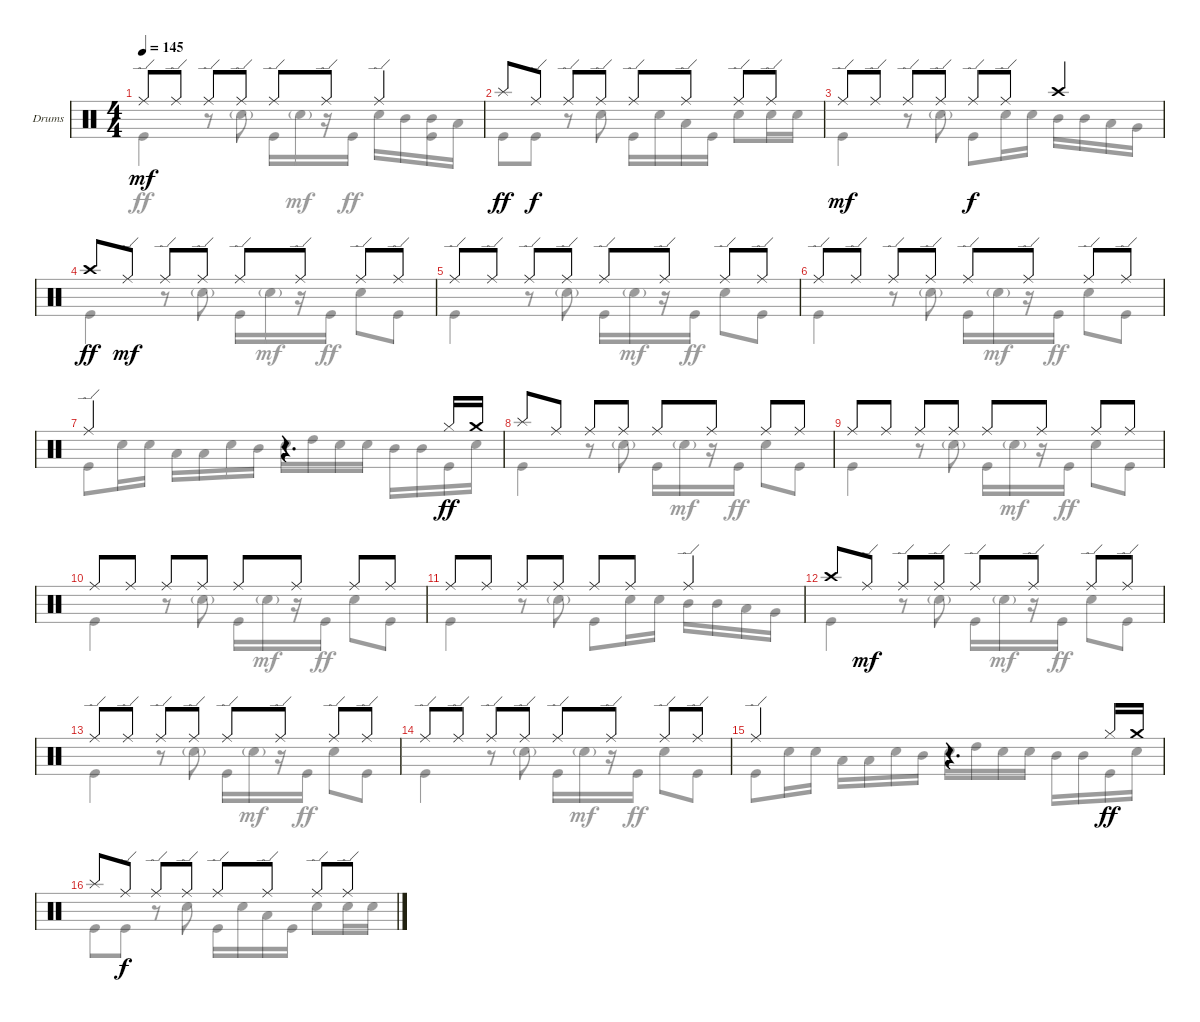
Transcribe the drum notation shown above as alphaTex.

\defaultSystemsLayout 4
\bracketExtendMode groupsimilarinstruments
\firstSystemTrackNameOrientation horizontal
\otherSystemsTrackNameOrientation horizontal
\track ("Drumkit" "Drums") {instrument percussion}
\staff {score}
\articulation defaults
\voice
\ts (4 4)
\tempo 145
\clef neutral
\ks c "Ride (edge)".8{dy mf} "Ride (edge)".8 "Ride (edge)".8 "Ride (edge)".8 "Ride (edge)".8 "Ride (edge)".8 "Ride (edge)".4
|
"Splash (hit)".8{dy ff} "Ride (edge)".8{dy f} "Ride (edge)".8 "Ride (edge)".8 "Ride (edge)".8 "Ride (edge)".8 "Ride (edge)".8 "Ride (edge)".8 |
"Ride (edge)".8{dy mf} "Ride (edge)".8 "Ride (edge)".8 "Ride (edge)".8 "Ride (edge)".8{dy f} "Ride (edge)".8 "Crash high (hit)".4 |
"Crash high (hit)".8{dy ff} "Ride (edge)".8{dy mf} "Ride (edge)".8 "Ride (edge)".8 "Ride (edge)".8 "Ride (edge)".8 "Ride (edge)".8 "Ride (edge)".8 |
"Ride (edge)".8 "Ride (edge)".8 "Ride (edge)".8 "Ride (edge)".8 "Ride (edge)".8 "Ride (edge)".8 "Ride (edge)".8 "Ride (edge)".8 |
"Ride (edge)".8 "Ride (edge)".8 "Ride (edge)".8 "Ride (edge)".8 "Ride (edge)".8 "Ride (edge)".8 "Ride (edge)".8 "Ride (edge)".8 |
"Ride (edge)".2 r.4{d} "Hi-Hat (closed)".16{dy ff} "Crash medium (hit)".16 |
"Splash (hit)".8 "Ride (middle)".8 "Ride (middle)".8 "Ride (middle)".8 "Ride (middle)".8 "Ride (middle)".8 "Ride (middle)".8 "Ride (middle)".8 |
"Ride (middle)".8 "Ride (middle)".8 "Ride (middle)".8 "Ride (middle)".8 "Ride (middle)".8 "Ride (middle)".8 "Ride (middle)".8 "Ride (middle)".8 |
"Ride (middle)".8 "Ride (middle)".8 "Ride (middle)".8 "Ride (middle)".8 "Ride (middle)".8 "Ride (middle)".8 "Ride (middle)".8 "Ride (middle)".8 |
"Ride (middle)".8 "Ride (middle)".8 "Ride (middle)".8 "Ride (middle)".8 "Ride (middle)".8 "Ride (middle)".8 "Ride (edge)".4 |
"Crash high (hit)".8 "Ride (edge)".8{dy mf} "Ride (edge)".8 "Ride (edge)".8 "Ride (edge)".8 "Ride (edge)".8 "Ride (edge)".8 "Ride (edge)".8 |
"Ride (edge)".8 "Ride (edge)".8 "Ride (edge)".8 "Ride (edge)".8 "Ride (edge)".8 "Ride (edge)".8 "Ride (edge)".8 "Ride (edge)".8 |
"Ride (edge)".8 "Ride (edge)".8 "Ride (edge)".8 "Ride (edge)".8 "Ride (edge)".8 "Ride (edge)".8 "Ride (edge)".8 "Ride (edge)".8 |
"Ride (edge)".2 r.4{d} "Hi-Hat (closed)".16{dy ff} "Crash medium (hit)".16 |
"Splash (hit)".8 "Ride (edge)".8{dy f} "Ride (edge)".8 "Ride (edge)".8 "Ride (edge)".8 "Ride (edge)".8 "Ride (edge)".8 "Ride (edge)".8
\voice
\clef neutral
\ottava regular
\simile none
\ks c "Kick (hit)".4{dy ff}
r.8 "Snare (hit) 2"{g}.8 "Kick (hit)".16 "Snare (hit) 2"{g}.16{dy mf} r.16 "Kick (hit)".16{dy ff} "Snare (hit) 2".16 "Mid Tom (hit)".16 ("Mid Tom (hit)" "Kick (hit)").16 "Low Tom (hit)".16 |
"Kick (hit)".8 "Kick (hit)".8 r.8 "Snare (hit) 2".8 "Kick (hit)".16 "Snare (hit) 2".16 "Low Tom (hit)".16 "Kick (hit)".16 "Snare (hit) 2".8 "Snare (hit) 2".16 "Snare (hit) 2".16 |
"Kick (hit)".4 r.8 "Snare (hit) 2"{g}.8 "Kick (hit)".8 "Snare (hit) 2".16 "Snare (hit) 2".16 "Mid Tom (hit)".16 "Mid Tom (hit)".16 "Low Tom (hit)".16 "Very Low Tom (hit)".16 |
"Kick (hit)".4 r.8 "Snare (hit) 2"{g}.8 "Kick (hit)".16 "Snare (hit) 2"{g}.16{dy mf} r.16 "Kick (hit)".16{dy ff} "Snare (hit) 2".8 "Kick (hit)".8 |
"Kick (hit)".4 r.8 "Snare (hit) 2"{g}.8 "Kick (hit)".16 "Snare (hit) 2"{g}.16{dy mf} r.16 "Kick (hit)".16{dy ff} "Snare (hit) 2".8 "Kick (hit)".8 |
"Kick (hit)".4 r.8 "Snare (hit) 2"{g}.8 "Kick (hit)".16 "Snare (hit) 2"{g}.16{dy mf} r.16 "Kick (hit)".16{dy ff} "Snare (hit) 2".8 "Kick (hit)".8 |
"Kick (hit)".8 "Snare (hit) 2".16 "Snare (hit) 2".16 "Low Tom (hit)".16 "Low Tom (hit)".16 "Snare (hit) 2".16 "Mid Tom (hit)".16 "Snare (hit) 2".16 "High Tom (hit)".16 "Snare (hit) 2".16 "Snare (hit) 2".16 "Mid Tom (hit)".16 "Mid Tom (hit)".16 "Kick (hit)".16 "Snare (hit) 2".16 |
"Kick (hit)".4 r.8 "Snare (hit) 2"{g}.8 "Kick (hit)".16 "Snare (hit) 2"{g}.16{dy mf} r.16 "Kick (hit)".16{dy ff} "Snare (hit) 2".8 "Kick (hit)".8 |
"Kick (hit)".4 r.8 "Snare (hit) 2"{g}.8 "Kick (hit)".16 "Snare (hit) 2"{g}.16{dy mf} r.16 "Kick (hit)".16{dy ff} "Snare (hit) 2".8 "Kick (hit)".8 |
"Kick (hit)".4 r.8 "Snare (hit) 2"{g}.8 "Kick (hit)".16 "Snare (hit) 2"{g}.16{dy mf} r.16 "Kick (hit)".16{dy ff} "Snare (hit) 2".8 "Kick (hit)".8 |
"Kick (hit)".4 r.8 "Snare (hit) 2"{g}.8 "Kick (hit)".8 "Snare (hit) 2".16 "Snare (hit) 2".16 "Mid Tom (hit)".16 "Mid Tom (hit)".16 "Low Tom (hit)".16 "Very Low Tom (hit)".16 |
"Kick (hit)".4 r.8 "Snare (hit) 2"{g}.8 "Kick (hit)".16 "Snare (hit) 2"{g}.16{dy mf} r.16 "Kick (hit)".16{dy ff} "Snare (hit) 2".8 "Kick (hit)".8 |
"Kick (hit)".4 r.8 "Snare (hit) 2"{g}.8 "Kick (hit)".16 "Snare (hit) 2"{g}.16{dy mf} r.16 "Kick (hit)".16{dy ff} "Snare (hit) 2".8 "Kick (hit)".8 |
"Kick (hit)".4 r.8 "Snare (hit) 2"{g}.8 "Kick (hit)".16 "Snare (hit) 2"{g}.16{dy mf} r.16 "Kick (hit)".16{dy ff} "Snare (hit) 2".8 "Kick (hit)".8 |
"Kick (hit)".8 "Snare (hit) 2".16 "Snare (hit) 2".16 "Low Tom (hit)".16 "Low Tom (hit)".16 "Snare (hit) 2".16 "Mid Tom (hit)".16 "Snare (hit) 2".16 "High Tom (hit)".16 "Snare (hit) 2".16 "Snare (hit) 2".16 "Mid Tom (hit)".16 "Mid Tom (hit)".16 "Kick (hit)".16 "Snare (hit) 2".16 |
"Kick (hit)".8 "Kick (hit)".8 r.8 "Snare (hit) 2".8 "Kick (hit)".16 "Snare (hit) 2".16 "Low Tom (hit)".16 "Kick (hit)".16 "Snare (hit) 2".8 "Snare (hit) 2".16 "Snare (hit) 2".16
